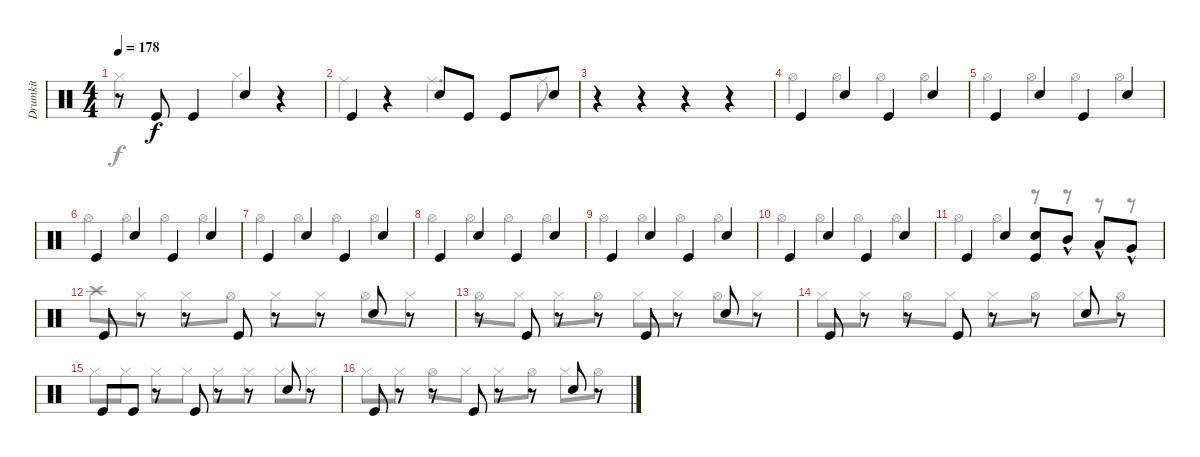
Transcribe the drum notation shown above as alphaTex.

\track ("Drumkit" "Drumkit") {instrument percussion}
\staff {score}
\articulation defaults
\voice
\ts (4 4)
\tempo 178
\clef neutral
\ks c
r.8{dy f} "Kick (hit)".8 "Kick (hit)".4 "Snare (hit) 2".4 r.4 |
"Kick (hit)".4 r.4 "Snare (hit) 2".8 "Kick (hit)".8 "Kick (hit)".8 "Snare (hit) 2".8 |
r.4 r.4 r.4 r.4 |
"Kick (hit)".4 "Snare (hit) 2".4 "Kick (hit)".4 "Snare (hit) 2".4 |
"Kick (hit)".4 "Snare (hit) 2".4 "Kick (hit)".4 "Snare (hit) 2".4 |
"Kick (hit)".4 "Snare (hit) 2".4 "Kick (hit)".4 "Snare (hit) 2".4 |
"Kick (hit)".4 "Snare (hit) 2".4 "Kick (hit)".4 "Snare (hit) 2".4 |
"Kick (hit)".4 "Snare (hit) 2".4 "Kick (hit)".4 "Snare (hit) 2".4 |
"Kick (hit)".4 "Snare (hit) 2".4 "Kick (hit)".4 "Snare (hit) 2".4 |
"Kick (hit)".4 "Snare (hit) 2".4 "Kick (hit)".4 "Snare (hit) 2".4 |
"Kick (hit)".4 "Snare (hit) 2".4 ("Kick (hit)" "Snare (hit) 2").8 "Mid Tom (hit)"{hac}.8 "Low Tom (hit)"{hac}.8 "Very Low Tom (hit)"{hac}.8 |
\section ("" "")
"Kick (hit)".8 r.8 r.8 "Kick (hit)".8 r.8 r.8 "Snare (hit) 2".8 r.8 |
r.8 "Kick (hit)".8 r.8 r.8 "Kick (hit)".8 r.8 "Snare (hit) 2".8 r.8 |
"Kick (hit)".8 r.8 r.8 "Kick (hit)".8 r.8 r.8 "Snare (hit) 2".8 r.8 |
"Kick (hit)".8 "Kick (hit)".8 r.8 "Kick (hit)".8 r.8 r.8 "Snare (hit) 2".8 r.8 |
"Kick (hit)".8 r.8 r.8 "Kick (hit)".8 r.8 r.8 "Snare (hit) 2".8 r.8
\voice
\clef neutral
\ottava regular
\simile none
\ks c "Hi-Hat (closed)".2{dy f} "Hi-Hat (closed)".4
r.4 |
"Ride (middle)".4 r.4 "Ride (middle)".4{d} "Ride (middle)".8 |
r.4 r.4 r.4 r.4 |
"Hi-Hat (open)".4 "Hi-Hat (open)".4 "Hi-Hat (open)".4 "Hi-Hat (open)".4 |
"Hi-Hat (open)".4 "Hi-Hat (open)".4 "Hi-Hat (open)".4 "Hi-Hat (open)".4 |
"Hi-Hat (open)".4 "Hi-Hat (open)".4 "Hi-Hat (open)".4 "Hi-Hat (open)".4 |
"Hi-Hat (open)".4 "Hi-Hat (open)".4 "Hi-Hat (open)".4 "Hi-Hat (open)".4 |
"Hi-Hat (open)".4 "Hi-Hat (open)".4 "Hi-Hat (open)".4 "Hi-Hat (open)".4 |
"Hi-Hat (open)".4 "Hi-Hat (open)".4 "Hi-Hat (open)".4 "Hi-Hat (open)".4 |
"Hi-Hat (open)".4 "Hi-Hat (open)".4 "Hi-Hat (open)".4 "Hi-Hat (open)".4 |
"Hi-Hat (open)".4 "Hi-Hat (open)".4 r.8 r.8 r.8 r.8 |
"Crash high (hit)".8 "Hi-Hat (closed)".8 "Hi-Hat (closed)".8 "Hi-Hat (open)".8 "Hi-Hat (closed)".8 "Hi-Hat (closed)".8 "Hi-Hat (open)".8 "Hi-Hat (closed)".8 |
"Hi-Hat (open)".8 "Hi-Hat (closed)".8 "Hi-Hat (closed)".8 "Hi-Hat (open)".8 "Hi-Hat (closed)".8 "Hi-Hat (closed)".8 "Hi-Hat (open)".8 "Hi-Hat (closed)".8 |
"Hi-Hat (closed)".8 "Hi-Hat (closed)".8 "Hi-Hat (open)".8 "Hi-Hat (closed)".8 "Hi-Hat (closed)".8 "Hi-Hat (open)".8 "Hi-Hat (closed)".8 "Hi-Hat (open)".8 |
"Hi-Hat (closed)".8 "Hi-Hat (closed)".8 "Hi-Hat (closed)".8 "Hi-Hat (closed)".8 "Hi-Hat (closed)".8 "Hi-Hat (closed)".8 "Hi-Hat (closed)".8 "Hi-Hat (closed)".8 |
"Hi-Hat (closed)".8 "Hi-Hat (closed)".8 "Hi-Hat (open)".8 "Hi-Hat (closed)".8 "Hi-Hat (closed)".8 "Hi-Hat (open)".8 "Hi-Hat (closed)".8 "Hi-Hat (open)".8
